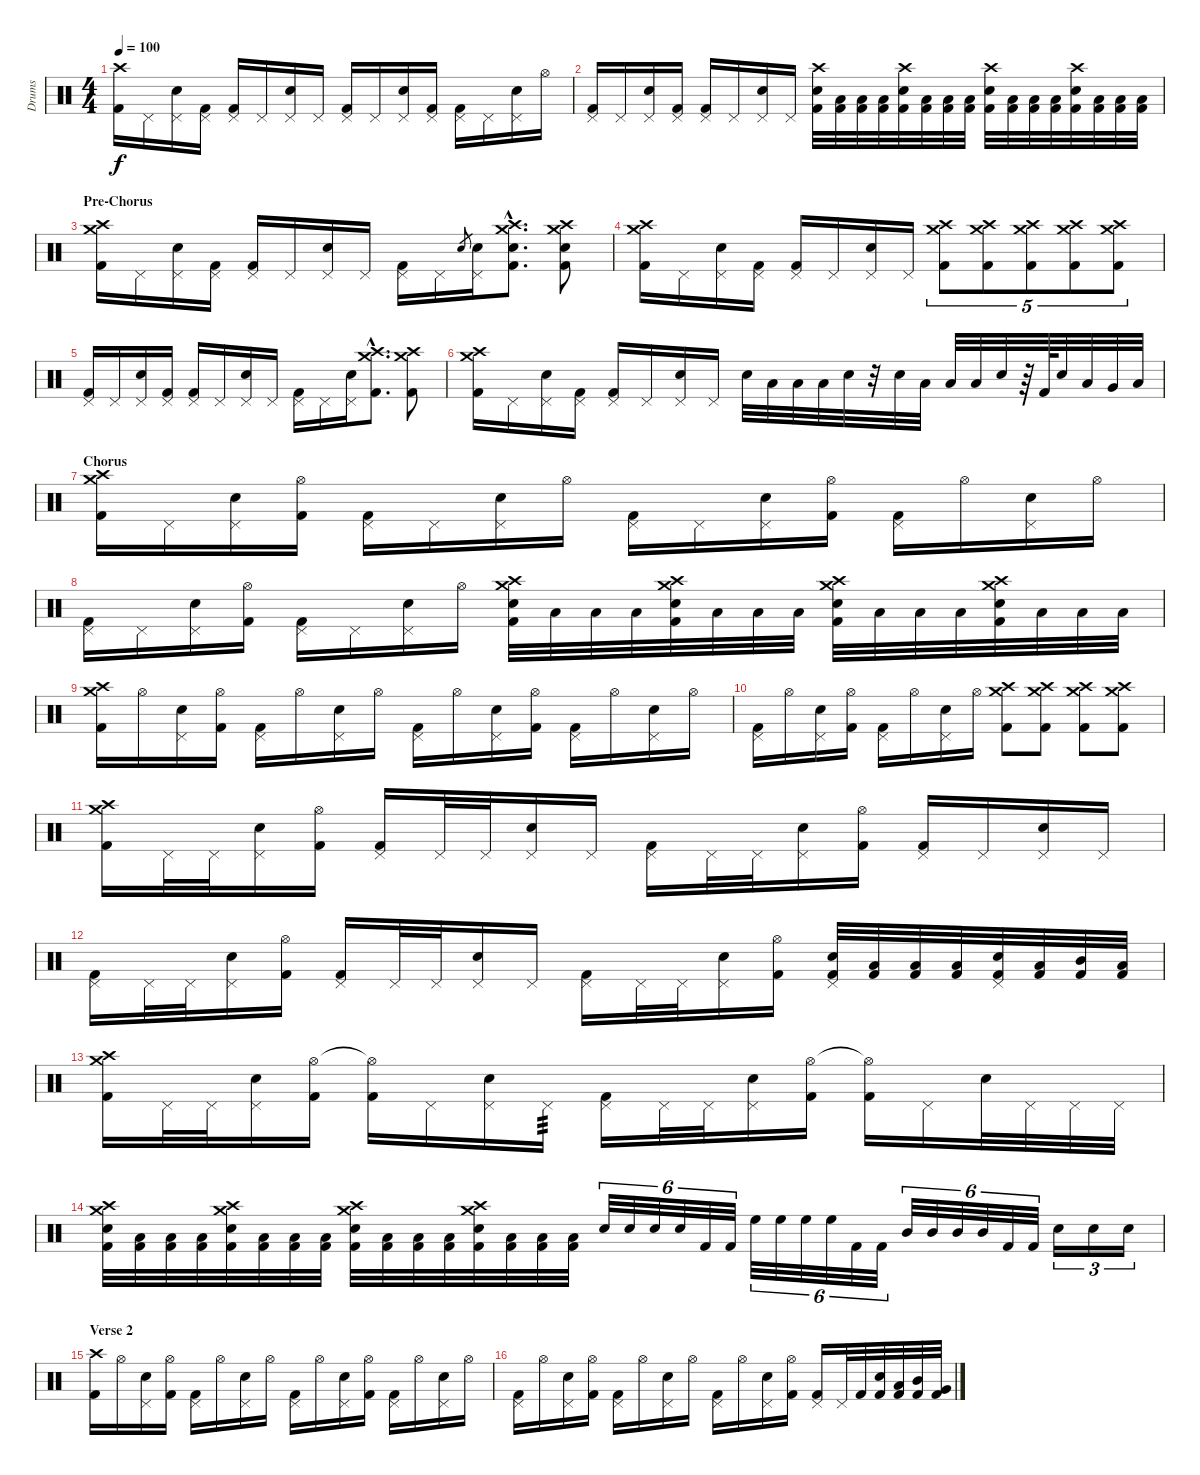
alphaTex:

\track ("Drums" "Drums") {instrument percussion}
\staff {score}
\articulation defaults
\ts (4 4)
\tempo 100
\clef neutral
\ks c
("Crash high (hit)" "Kick (hit) 2").16{dy f} "Pedal Hi-Hat (hit)".16 ("Pedal Hi-Hat (hit)" "Electric Snare (hit)").16 ("Pedal Hi-Hat (hit)" "Kick (hit) 2").16 ("Pedal Hi-Hat (hit)" "Kick (hit) 2").16 "Pedal Hi-Hat (hit)".16 ("Pedal Hi-Hat (hit)" "Electric Snare (hit)").16 "Pedal Hi-Hat (hit)".16 ("Pedal Hi-Hat (hit)" "Kick (hit) 2").16 "Pedal Hi-Hat (hit)".16 ("Pedal Hi-Hat (hit)" "Electric Snare (hit)").16 ("Pedal Hi-Hat (hit)" "Kick (hit) 2").16 ("Pedal Hi-Hat (hit)" "Kick (hit) 2").16 "Pedal Hi-Hat (hit)".16 ("Pedal Hi-Hat (hit)" "Electric Snare (hit)").16 "Hi-Hat (open)".16 |
("Pedal Hi-Hat (hit)" "Kick (hit) 2").16 "Pedal Hi-Hat (hit)".16 ("Pedal Hi-Hat (hit)" "Electric Snare (hit)").16 ("Pedal Hi-Hat (hit)" "Kick (hit) 2").16 ("Pedal Hi-Hat (hit)" "Kick (hit) 2").16 "Pedal Hi-Hat (hit)".16 ("Pedal Hi-Hat (hit)" "Electric Snare (hit)").16 "Pedal Hi-Hat (hit)".16 ("Crash high (hit)" "Electric Snare (hit)" "Kick (hit) 2").32 ("Low Tom (hit)" "Kick (hit) 2").32 ("Low Tom (hit)" "Kick (hit) 2").32 ("Low Tom (hit)" "Kick (hit) 2").32 ("Crash high (hit)" "Electric Snare (hit)" "Kick (hit) 2").32 ("Low Tom (hit)" "Kick (hit) 2").32 ("Low Tom (hit)" "Kick (hit) 2").32 ("Low Tom (hit)" "Kick (hit) 2").32 ("Crash high (hit)" "Electric Snare (hit)" "Kick (hit) 2").32 ("Low Tom (hit)" "Kick (hit) 2").32 ("Low Tom (hit)" "Kick (hit) 2").32 ("Low Tom (hit)" "Kick (hit) 2").32 ("Crash high (hit)" "Electric Snare (hit)" "Kick (hit) 2").32 ("Low Tom (hit)" "Kick (hit) 2").32 ("Low Tom (hit)" "Kick (hit) 2").32 ("Low Tom (hit)" "Kick (hit) 2").32 |
\section ("" "Pre-Chorus")
("Crash high (hit)" "Crash medium (hit)" "Kick (hit) 2").16 "Pedal Hi-Hat (hit)".16 ("Pedal Hi-Hat (hit)" "Electric Snare (hit)").16 ("Pedal Hi-Hat (hit)" "Kick (hit) 2").16 ("Pedal Hi-Hat (hit)" "Kick (hit) 2").16 "Pedal Hi-Hat (hit)".16 ("Pedal Hi-Hat (hit)" "Electric Snare (hit)").16 "Pedal Hi-Hat (hit)".16 ("Pedal Hi-Hat (hit)" "Kick (hit) 2").16 "Pedal Hi-Hat (hit)".16 "Electric Snare (hit)".8{gr} ("Pedal Hi-Hat (hit)" "Electric Snare (hit)").16 ("Crash high (hit)"{hac} "Crash medium (hit)"{hac} "Electric Snare (hit)"{hac} "Kick (hit) 2"{hac}).8{d} ("Crash high (hit)" "Crash medium (hit)" "Electric Snare (hit)" "Kick (hit) 2").8 |
("Crash high (hit)" "Crash medium (hit)" "Kick (hit) 2").16 "Pedal Hi-Hat (hit)".16 ("Pedal Hi-Hat (hit)" "Electric Snare (hit)").16 ("Pedal Hi-Hat (hit)" "Kick (hit) 2").16 ("Pedal Hi-Hat (hit)" "Kick (hit) 2").16 "Pedal Hi-Hat (hit)".16 ("Pedal Hi-Hat (hit)" "Electric Snare (hit)").16 "Pedal Hi-Hat (hit)".16 ("Crash high (hit)" "Crash medium (hit)" "Kick (hit) 2").8{tu (5 4)} ("Crash high (hit)" "Crash medium (hit)" "Kick (hit) 2").8{tu (5 4)} ("Crash high (hit)" "Crash medium (hit)" "Kick (hit) 2").8{tu (5 4)} ("Crash high (hit)" "Crash medium (hit)" "Kick (hit) 2").8{tu (5 4)} ("Crash high (hit)" "Crash medium (hit)" "Kick (hit) 2").8{tu (5 4)} |
("Pedal Hi-Hat (hit)" "Kick (hit) 2").16 "Pedal Hi-Hat (hit)".16 ("Pedal Hi-Hat (hit)" "Electric Snare (hit)").16 ("Pedal Hi-Hat (hit)" "Kick (hit) 2").16 ("Pedal Hi-Hat (hit)" "Kick (hit) 2").16 "Pedal Hi-Hat (hit)".16 ("Pedal Hi-Hat (hit)" "Electric Snare (hit)").16 "Pedal Hi-Hat (hit)".16 ("Pedal Hi-Hat (hit)" "Kick (hit) 2").16 "Pedal Hi-Hat (hit)".16 ("Pedal Hi-Hat (hit)" "Electric Snare (hit)").16 ("Crash high (hit)"{hac} "Crash medium (hit)"{hac} "Kick (hit) 2"{hac}).8{d} ("Crash high (hit)" "Crash medium (hit)" "Kick (hit) 2").8 |
("Crash high (hit)" "Crash medium (hit)" "Kick (hit) 2").16 "Pedal Hi-Hat (hit)".16 ("Pedal Hi-Hat (hit)" "Electric Snare (hit)").16 ("Pedal Hi-Hat (hit)" "Kick (hit) 2").16 ("Pedal Hi-Hat (hit)" "Kick (hit) 2").16 "Pedal Hi-Hat (hit)".16 ("Pedal Hi-Hat (hit)" "Electric Snare (hit)").16 "Pedal Hi-Hat (hit)".16 "Electric Snare (hit)".32 "Low Tom (hit)".32 "Low Tom (hit)".32 "Low Tom (hit)".32 "Electric Snare (hit)".32 r.32 "Electric Snare (hit)".32 "Low Tom (hit)".32 "Low Tom (hit)".32 "Low Tom (hit)".32 "Electric Snare (hit)".32 r.64 "Kick (hit) 2".64 "Electric Snare (hit)".32 "Low Tom (hit)".32 "Very Low Tom (hit)".32 "Low Floor Tom (hit)".32 |
\section ("" "Chorus")
("Crash medium (hit)" "Crash high (hit)" "Kick (hit) 2").16 "Pedal Hi-Hat (hit)".16 ("Pedal Hi-Hat (hit)" "Electric Snare (hit)").16 ("Hi-Hat (open)" "Kick (hit) 2").16 ("Pedal Hi-Hat (hit)" "Kick (hit) 2").16 "Pedal Hi-Hat (hit)".16 ("Pedal Hi-Hat (hit)" "Electric Snare (hit)").16 "Hi-Hat (open)".16 ("Pedal Hi-Hat (hit)" "Kick (hit) 2").16 "Pedal Hi-Hat (hit)".16 ("Pedal Hi-Hat (hit)" "Electric Snare (hit)").16 ("Hi-Hat (open)" "Kick (hit) 2").16 ("Pedal Hi-Hat (hit)" "Kick (hit) 2").16 "Hi-Hat (open)".16 ("Pedal Hi-Hat (hit)" "Electric Snare (hit)").16 "Hi-Hat (open)".16 |
("Pedal Hi-Hat (hit)" "Kick (hit) 2").16 "Pedal Hi-Hat (hit)".16 ("Pedal Hi-Hat (hit)" "Electric Snare (hit)").16 ("Hi-Hat (open)" "Kick (hit) 2").16 ("Pedal Hi-Hat (hit)" "Kick (hit) 2").16 "Pedal Hi-Hat (hit)".16 ("Pedal Hi-Hat (hit)" "Electric Snare (hit)").16 "Hi-Hat (open)".16 ("Crash medium (hit)" "Crash high (hit)" "Electric Snare (hit)" "Kick (hit) 2").32 "Low Tom (hit)".32 "Low Tom (hit)".32 "Low Tom (hit)".32 ("Crash medium (hit)" "Crash high (hit)" "Electric Snare (hit)" "Kick (hit) 2").32 "Low Tom (hit)".32 "Low Tom (hit)".32 "Low Tom (hit)".32 ("Crash medium (hit)" "Crash high (hit)" "Electric Snare (hit)" "Kick (hit) 2").32 "Low Tom (hit)".32 "Low Tom (hit)".32 "Low Tom (hit)".32 ("Crash medium (hit)" "Crash high (hit)" "Electric Snare (hit)" "Kick (hit) 2").32 "Low Tom (hit)".32 "Low Tom (hit)".32 "Low Tom (hit)".32 |
("Crash medium (hit)" "Crash high (hit)" "Kick (hit) 2").16 "Hi-Hat (open)".16 ("Pedal Hi-Hat (hit)" "Electric Snare (hit)").16 ("Hi-Hat (open)" "Kick (hit) 2").16 ("Pedal Hi-Hat (hit)" "Kick (hit) 2").16 "Hi-Hat (open)".16 ("Pedal Hi-Hat (hit)" "Electric Snare (hit)").16 "Hi-Hat (open)".16 ("Pedal Hi-Hat (hit)" "Kick (hit) 2").16 "Hi-Hat (open)".16 ("Pedal Hi-Hat (hit)" "Electric Snare (hit)").16 ("Hi-Hat (open)" "Kick (hit) 2").16 ("Pedal Hi-Hat (hit)" "Kick (hit) 2").16 "Hi-Hat (open)".16 ("Pedal Hi-Hat (hit)" "Electric Snare (hit)").16 "Hi-Hat (open)".16 |
("Pedal Hi-Hat (hit)" "Kick (hit) 2").16 "Hi-Hat (open)".16 ("Pedal Hi-Hat (hit)" "Electric Snare (hit)").16 ("Hi-Hat (open)" "Kick (hit) 2").16 ("Pedal Hi-Hat (hit)" "Kick (hit) 2").16 "Hi-Hat (open)".16 ("Pedal Hi-Hat (hit)" "Electric Snare (hit)").16 "Hi-Hat (open)".16 ("Crash medium (hit)" "Crash high (hit)" "Kick (hit) 2").8 ("Crash medium (hit)" "Crash high (hit)" "Kick (hit) 2").8 ("Crash medium (hit)" "Crash high (hit)" "Kick (hit) 2").8 ("Crash medium (hit)" "Crash high (hit)" "Kick (hit) 2").8 |
("Crash medium (hit)" "Crash high (hit)" "Kick (hit) 2").16 "Pedal Hi-Hat (hit)".32 "Pedal Hi-Hat (hit)".32 ("Pedal Hi-Hat (hit)" "Electric Snare (hit)").16 ("Hi-Hat (open)" "Kick (hit) 2").16 ("Pedal Hi-Hat (hit)" "Kick (hit) 2").16 "Pedal Hi-Hat (hit)".32 "Pedal Hi-Hat (hit)".32 ("Pedal Hi-Hat (hit)" "Electric Snare (hit)").16 "Pedal Hi-Hat (hit)".16 ("Pedal Hi-Hat (hit)" "Kick (hit) 2").16 "Pedal Hi-Hat (hit)".32 "Pedal Hi-Hat (hit)".32 ("Pedal Hi-Hat (hit)" "Electric Snare (hit)").16 ("Hi-Hat (open)" "Kick (hit) 2").16 ("Pedal Hi-Hat (hit)" "Kick (hit) 2").16 "Pedal Hi-Hat (hit)".16 ("Pedal Hi-Hat (hit)" "Electric Snare (hit)").16 "Pedal Hi-Hat (hit)".16 |
("Pedal Hi-Hat (hit)" "Kick (hit) 2").16 "Pedal Hi-Hat (hit)".32 "Pedal Hi-Hat (hit)".32 ("Pedal Hi-Hat (hit)" "Electric Snare (hit)").16 ("Hi-Hat (open)" "Kick (hit) 2").16 ("Pedal Hi-Hat (hit)" "Kick (hit) 2").16 "Pedal Hi-Hat (hit)".32 "Pedal Hi-Hat (hit)".32 ("Pedal Hi-Hat (hit)" "Electric Snare (hit)").16 "Pedal Hi-Hat (hit)".16 ("Pedal Hi-Hat (hit)" "Kick (hit) 2").16 "Pedal Hi-Hat (hit)".32 "Pedal Hi-Hat (hit)".32 ("Pedal Hi-Hat (hit)" "Electric Snare (hit)").16 ("Hi-Hat (open)" "Kick (hit) 2").16 ("Pedal Hi-Hat (hit)" "Electric Snare (hit)" "Kick (hit) 2").32 ("Low Tom (hit)" "Kick (hit) 2").32 ("Low Tom (hit)" "Kick (hit) 2").32 ("Low Tom (hit)" "Kick (hit) 2").32 ("Pedal Hi-Hat (hit)" "Electric Snare (hit)" "Kick (hit) 2").32 ("Low Tom (hit)" "Kick (hit) 2").32 ("Mid Tom (hit)" "Kick (hit) 2").32 ("Low Floor Tom (hit)" "Kick (hit) 2").32 |
("Crash medium (hit)" "Crash high (hit)" "Kick (hit) 2").16 "Pedal Hi-Hat (hit)".32 "Pedal Hi-Hat (hit)".32 ("Pedal Hi-Hat (hit)" "Electric Snare (hit)").16 ("Hi-Hat (open)" "Kick (hit) 2").16 ("Hi-Hat (open)"{t} "Kick (hit) 2").16 "Pedal Hi-Hat (hit)".16 ("Pedal Hi-Hat (hit)" "Electric Snare (hit)").16 "Pedal Hi-Hat (hit)".16{tp 3} ("Pedal Hi-Hat (hit)" "Kick (hit) 2").16 "Pedal Hi-Hat (hit)".32 "Pedal Hi-Hat (hit)".32 ("Pedal Hi-Hat (hit)" "Electric Snare (hit)").16 ("Hi-Hat (open)" "Kick (hit) 2").16 ("Hi-Hat (open)"{t} "Kick (hit) 2").16 "Pedal Hi-Hat (hit)".16 "Electric Snare (hit)".32 "Pedal Hi-Hat (hit)".32 "Pedal Hi-Hat (hit)".32 "Pedal Hi-Hat (hit)".32 |
("Crash medium (hit)" "Crash high (hit)" "Electric Snare (hit)" "Kick (hit) 2").32 ("Low Tom (hit)" "Kick (hit) 2").32 ("Low Tom (hit)" "Kick (hit) 2").32 ("Low Tom (hit)" "Kick (hit) 2").32 ("Crash medium (hit)" "Crash high (hit)" "Electric Snare (hit)" "Kick (hit) 2").32 ("Low Tom (hit)" "Kick (hit) 2").32 ("Low Tom (hit)" "Kick (hit) 2").32 ("Low Tom (hit)" "Kick (hit) 2").32 ("Crash medium (hit)" "Crash high (hit)" "Electric Snare (hit)" "Kick (hit) 2").32 ("Low Tom (hit)" "Kick (hit) 2").32 ("Low Tom (hit)" "Kick (hit) 2").32 ("Low Tom (hit)" "Kick (hit) 2").32 ("Crash medium (hit)" "Crash high (hit)" "Electric Snare (hit)" "Kick (hit) 2").32 ("Low Tom (hit)" "Kick (hit) 2").32 ("Low Tom (hit)" "Kick (hit) 2").32 ("Low Tom (hit)" "Kick (hit) 2").32 "Electric Snare (hit)".32{tu (6 4)} "Electric Snare (hit)".32{tu (6 4)} "Electric Snare (hit)".32{tu (6 4)} "Electric Snare (hit)".32{tu (6 4)} "Kick (hit) 2".32{tu (6 4)} "Kick (hit) 2".32{tu (6 4)} "High Floor Tom (hit)".32{tu (6 4)} "High Floor Tom (hit)".32{tu (6 4)} "High Floor Tom (hit)".32{tu (6 4)} "High Floor Tom (hit)".32{tu (6 4)} "Kick (hit) 2".32{tu (6 4)} "Kick (hit) 2".32{tu (6 4)} "Mid Tom (hit)".32{tu (6 4)} "Mid Tom (hit)".32{tu (6 4)} "Mid Tom (hit)".32{tu (6 4)} "Mid Tom (hit)".32{tu (6 4)} "Kick (hit) 2".32{tu (6 4)} "Kick (hit) 2".32{tu (6 4)} "Electric Snare (hit)".16{tu (3 2)} "Electric Snare (hit)".16{tu (3 2)} "Electric Snare (hit)".16{tu (3 2)} |
\section ("" "Verse 2")
("Crash high (hit)" "Kick (hit) 2").16 "Hi-Hat (open)".16 ("Pedal Hi-Hat (hit)" "Electric Snare (hit)").16 ("Hi-Hat (open)" "Kick (hit) 2").16 ("Pedal Hi-Hat (hit)" "Kick (hit) 2").16 "Hi-Hat (open)".16 ("Pedal Hi-Hat (hit)" "Electric Snare (hit)").16 "Hi-Hat (open)".16 ("Pedal Hi-Hat (hit)" "Kick (hit) 2").16 "Hi-Hat (open)".16 ("Pedal Hi-Hat (hit)" "Electric Snare (hit)").16 ("Hi-Hat (open)" "Kick (hit) 2").16 ("Pedal Hi-Hat (hit)" "Kick (hit) 2").16 "Hi-Hat (open)".16 ("Pedal Hi-Hat (hit)" "Electric Snare (hit)").16 "Hi-Hat (open)".16 |
("Pedal Hi-Hat (hit)" "Kick (hit) 2").16 "Hi-Hat (open)".16 ("Pedal Hi-Hat (hit)" "Electric Snare (hit)").16 ("Hi-Hat (open)" "Kick (hit) 2").16 ("Pedal Hi-Hat (hit)" "Kick (hit) 2").16 "Hi-Hat (open)".16 ("Pedal Hi-Hat (hit)" "Electric Snare (hit)").16 "Hi-Hat (open)".16 ("Pedal Hi-Hat (hit)" "Kick (hit) 2").16 "Hi-Hat (open)".16 ("Pedal Hi-Hat (hit)" "Electric Snare (hit)").16 ("Hi-Hat (open)" "Kick (hit) 2").16 ("Pedal Hi-Hat (hit)" "Kick (hit) 2").16 "Pedal Hi-Hat (hit)".32 "Kick (hit) 2".32 ("Electric Snare (hit)" "Kick (hit) 2").32 ("Low Tom (hit)" "Kick (hit) 2").32 ("Mid Tom (hit)" "Kick (hit) 2").32 ("Very Low Tom (hit)" "Kick (hit) 2").32
